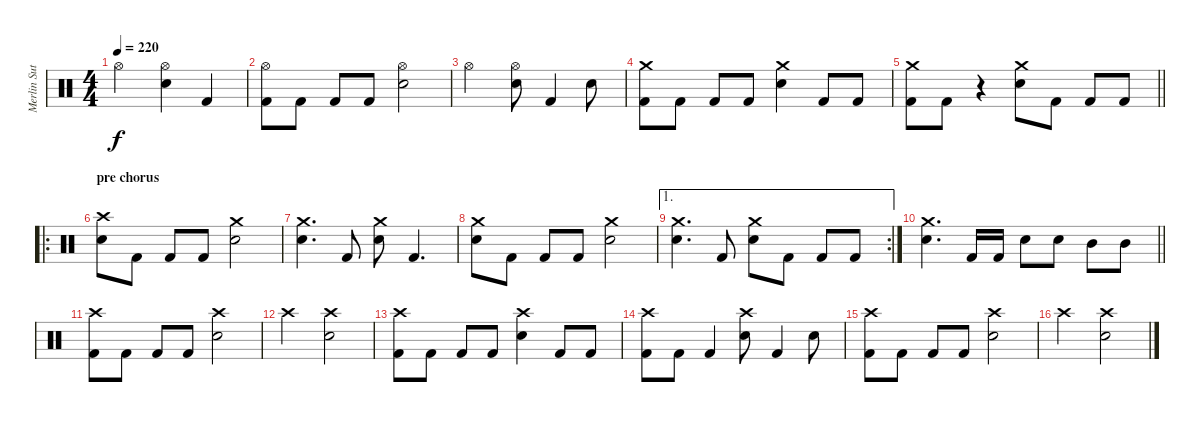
\track ("Merlin Sutter" "Merlin Sut") {instrument percussion}
\staff {score}
\articulation defaults
\ts (4 4)
\tempo 220
\clef neutral
\ks c "Hi-Hat (open)".2{dy f}
("Hi-Hat (open)" "Snare (hit) 2").4 "Kick (hit) 2".4 |
("Hi-Hat (open)" "Kick (hit) 2").8 "Kick (hit) 2".8 "Kick (hit) 2".8 "Kick (hit) 2".8 ("Hi-Hat (open)" "Snare (hit) 2").2 |
"Hi-Hat (open)".2 ("Hi-Hat (open)" "Snare (hit) 2").8 "Kick (hit) 2".4 "Snare (hit) 2".8 |
("Crash medium (hit)" "Kick (hit) 2").8 "Kick (hit) 2".8 "Kick (hit) 2".8 "Kick (hit) 2".8 ("Crash medium (hit)" "Snare (hit) 2").4 "Kick (hit) 2".8 "Kick (hit) 2".8 |
\barLineRight lightlight
("Crash medium (hit)" "Kick (hit) 2").8 "Kick (hit) 2".8 r.4 ("Crash medium (hit)" "Snare (hit) 2").8 "Kick (hit) 2".8 "Kick (hit) 2".8 "Kick (hit) 2".8 |
\ro
\section ("" "pre chorus")
("Crash high (hit)" "Snare (hit) 2").8 "Kick (hit) 2".8 "Kick (hit) 2".8 "Kick (hit) 2".8 ("Crash medium (hit)" "Snare (hit) 2").2 |
("Crash medium (hit)" "Snare (hit) 2").4{d} "Kick (hit) 2".8 ("Crash medium (hit)" "Snare (hit) 2").8 "Kick (hit) 2".4{d} |
("Crash medium (hit)" "Snare (hit) 2").8 "Kick (hit) 2".8 "Kick (hit) 2".8 "Kick (hit) 2".8 ("Crash medium (hit)" "Snare (hit) 2").2 |
\ae 1
\rc 2
("Crash medium (hit)" "Snare (hit) 2").4{d} "Kick (hit) 2".8 ("Crash medium (hit)" "Snare (hit) 2").8 "Kick (hit) 2".8 "Kick (hit) 2".8 "Kick (hit) 2".8 |
\barLineRight lightlight
("Crash medium (hit)" "Snare (hit) 2").4{d} "Kick (hit) 2".16 "Kick (hit) 2".16 "Snare (hit) 2".8 "Snare (hit) 2".8 "Mid Tom (hit)".8 "Mid Tom (hit)".8 |
\section ("" "")
("Crash high (hit)" "Kick (hit) 2").8 "Kick (hit) 2".8 "Kick (hit) 2".8 "Kick (hit) 2".8 ("Crash high (hit)" "Snare (hit) 2").2 |
"Crash high (hit)".2 ("Crash high (hit)" "Snare (hit) 2").2 |
("Crash high (hit)" "Kick (hit) 2").8 "Kick (hit) 2".8 "Kick (hit) 2".8 "Kick (hit) 2".8 ("Crash high (hit)" "Snare (hit) 2").4 "Kick (hit) 2".8 "Kick (hit) 2".8 |
("Crash high (hit)" "Kick (hit) 2").8 "Kick (hit) 2".8 "Kick (hit) 2".4 ("Crash high (hit)" "Snare (hit) 2").8 "Kick (hit) 2".4 "Snare (hit) 2".8 |
("Crash high (hit)" "Kick (hit) 2").8 "Kick (hit) 2".8 "Kick (hit) 2".8 "Kick (hit) 2".8 ("Crash high (hit)" "Snare (hit) 2").2 |
"Crash high (hit)".2 ("Crash high (hit)" "Snare (hit) 2").2
